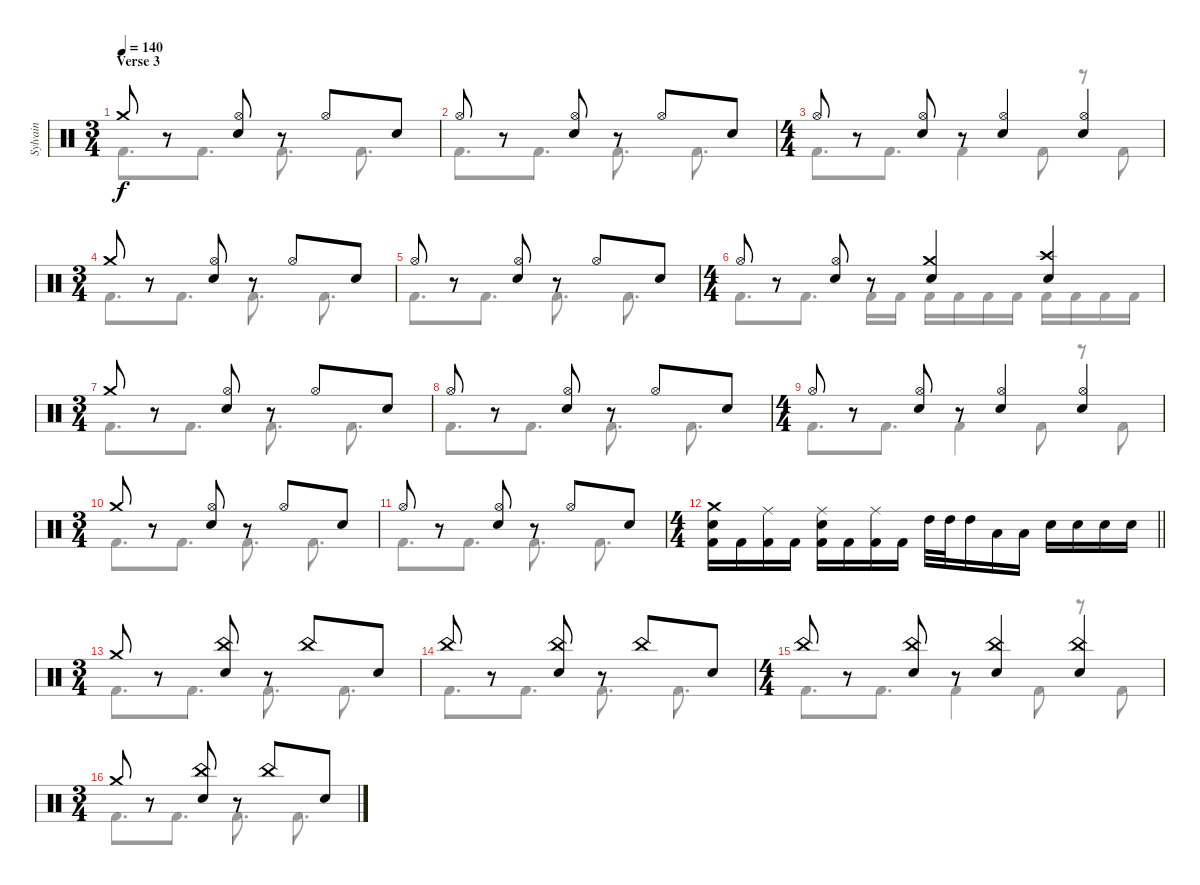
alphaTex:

\track ("Sylvain" "Sylvain") {instrument percussion}
\staff {score}
\articulation defaults
\voice
\ts (3 4)
\section ("" "Verse 3")
\tempo 140
\clef neutral
\ks c "Crash medium (hit)".8{dy f}
r.8 ("Hi-Hat (open)" "Snare (hit) 2").8 r.8 "Hi-Hat (open)".8 "Snare (hit) 2".8 |
"Hi-Hat (open)".8 r.8 ("Hi-Hat (open)" "Snare (hit) 2").8 r.8 "Hi-Hat (open)".8 "Snare (hit) 2".8 |
\ts (4 4)
"Hi-Hat (open)".8 r.8 ("Hi-Hat (open)" "Snare (hit) 2").8 r.8 ("Hi-Hat (open)" "Snare (hit) 2").4 ("Hi-Hat (open)" "Snare (hit) 2").4 |
\ts (3 4)
"Crash medium (hit)".8 r.8 ("Hi-Hat (open)" "Snare (hit) 2").8 r.8 "Hi-Hat (open)".8 "Snare (hit) 2".8 |
"Hi-Hat (open)".8 r.8 ("Hi-Hat (open)" "Snare (hit) 2").8 r.8 "Hi-Hat (open)".8 "Snare (hit) 2".8 |
\ts (4 4)
"Hi-Hat (open)".8 r.8 ("Hi-Hat (open)" "Snare (hit) 2").8 r.8 ("Crash medium (hit)" "Snare (hit) 2").4 ("Crash high (hit)" "Snare (hit) 2").4 |
\ts (3 4)
"Crash medium (hit)".8 r.8 ("Hi-Hat (open)" "Snare (hit) 2").8 r.8 "Hi-Hat (open)".8 "Snare (hit) 2".8 |
"Hi-Hat (open)".8 r.8 ("Hi-Hat (open)" "Snare (hit) 2").8 r.8 "Hi-Hat (open)".8 "Snare (hit) 2".8 |
\ts (4 4)
"Hi-Hat (open)".8 r.8 ("Hi-Hat (open)" "Snare (hit) 2").8 r.8 ("Hi-Hat (open)" "Snare (hit) 2").4 ("Hi-Hat (open)" "Snare (hit) 2").4 |
\ts (3 4)
"Crash medium (hit)".8 r.8 ("Hi-Hat (open)" "Snare (hit) 2").8 r.8 "Hi-Hat (open)".8 "Snare (hit) 2".8 |
"Hi-Hat (open)".8 r.8 ("Hi-Hat (open)" "Snare (hit) 2").8 r.8 "Hi-Hat (open)".8 "Snare (hit) 2".8 |
\ts (4 4)
\barLineRight lightlight
("Crash medium (hit)" "Snare (hit) 2" "Kick (hit) 2").16 "Kick (hit) 2".16 ("Ride (middle)" "Kick (hit) 2").16 "Kick (hit) 2".16 ("Ride (middle)" "Snare (hit) 2" "Kick (hit) 2").16 "Kick (hit) 2".16 ("Ride (middle)" "Kick (hit) 2").16 "Kick (hit) 2".16 "High Tom (hit)".32 "High Tom (hit)".32 "High Tom (hit)".16 "Low Tom (hit)".16 "Low Tom (hit)".16 "Snare (hit) 2".16 "Snare (hit) 2".16 "Snare (hit) 2".16 "Snare (hit) 2".16 |
\ts (3 4)
"Crash medium (hit)".8 r.8 ("China (hit)" "Snare (hit) 2").8 r.8 "China (hit)".8 "Snare (hit) 2".8 |
"China (hit)".8 r.8 ("China (hit)" "Snare (hit) 2").8 r.8 "China (hit)".8 "Snare (hit) 2".8 |
\ts (4 4)
"China (hit)".8 r.8 ("China (hit)" "Snare (hit) 2").8 r.8 ("China (hit)" "Snare (hit) 2").4 ("China (hit)" "Snare (hit) 2").4 |
\ts (3 4)
"Crash medium (hit)".8 r.8 ("China (hit)" "Snare (hit) 2").8 r.8 "China (hit)".8 "Snare (hit) 2".8
\voice
\clef neutral
\ottava regular
\simile none
\ks c "Kick (hit) 2".8{d dy f} "Kick (hit) 2".8{d} "Kick (hit) 2".8{d} "Kick (hit) 2".8{d}
|
"Kick (hit) 2".8{d} "Kick (hit) 2".8{d} "Kick (hit) 2".8{d} "Kick (hit) 2".8{d} |
"Kick (hit) 2".8{d} "Kick (hit) 2".8{d} "Kick (hit) 2".4 "Kick (hit) 2".8 r.8 "Kick (hit) 2".8 |
"Kick (hit) 2".8{d} "Kick (hit) 2".8{d} "Kick (hit) 2".8{d} "Kick (hit) 2".8{d} |
"Kick (hit) 2".8{d} "Kick (hit) 2".8{d} "Kick (hit) 2".8{d} "Kick (hit) 2".8{d} |
"Kick (hit) 2".8{d} "Kick (hit) 2".8{d} "Kick (hit) 2".16 "Kick (hit) 2".16 "Kick (hit) 2".16 "Kick (hit) 2".16 "Kick (hit) 2".16 "Kick (hit) 2".16 "Kick (hit) 2".16 "Kick (hit) 2".16 "Kick (hit) 2".16 "Kick (hit) 2".16 |
"Kick (hit) 2".8{d} "Kick (hit) 2".8{d} "Kick (hit) 2".8{d} "Kick (hit) 2".8{d} |
"Kick (hit) 2".8{d} "Kick (hit) 2".8{d} "Kick (hit) 2".8{d} "Kick (hit) 2".8{d} |
"Kick (hit) 2".8{d} "Kick (hit) 2".8{d} "Kick (hit) 2".4 "Kick (hit) 2".8 r.8 "Kick (hit) 2".8 |
"Kick (hit) 2".8{d} "Kick (hit) 2".8{d} "Kick (hit) 2".8{d} "Kick (hit) 2".8{d} |
"Kick (hit) 2".8{d} "Kick (hit) 2".8{d} "Kick (hit) 2".8{d} "Kick (hit) 2".8{d} |
\barLineRight lightlight
|
"Kick (hit) 2".8{d} "Kick (hit) 2".8{d} "Kick (hit) 2".8{d} "Kick (hit) 2".8{d} |
"Kick (hit) 2".8{d} "Kick (hit) 2".8{d} "Kick (hit) 2".8{d} "Kick (hit) 2".8{d} |
"Kick (hit) 2".8{d} "Kick (hit) 2".8{d} "Kick (hit) 2".4 "Kick (hit) 2".8 r.8 "Kick (hit) 2".8 |
"Kick (hit) 2".8{d} "Kick (hit) 2".8{d} "Kick (hit) 2".8{d} "Kick (hit) 2".8{d}
